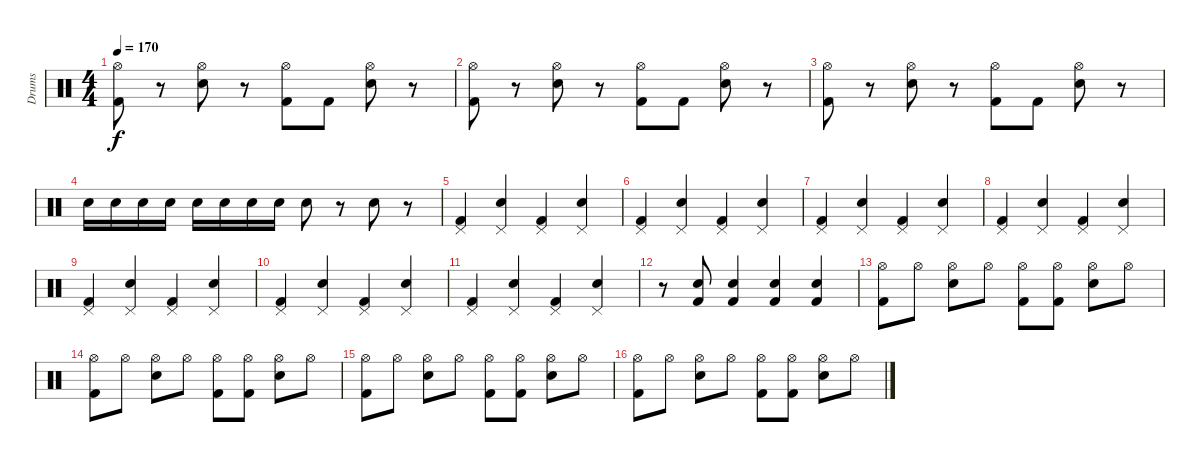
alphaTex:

\track ("Drums" "Drums") {instrument percussion}
\staff {score}
\articulation defaults
\ts (4 4)
\tempo 170
\clef neutral
\ks c
("Hi-Hat (open)" "Kick (hit) 2").8{dy f} r.8 ("Hi-Hat (open)" "Snare (hit) 2").8 r.8 ("Hi-Hat (open)" "Kick (hit) 2").8 "Kick (hit) 2".8 ("Hi-Hat (open)" "Snare (hit) 2").8 r.8 |
("Hi-Hat (open)" "Kick (hit) 2").8 r.8 ("Hi-Hat (open)" "Snare (hit) 2").8 r.8 ("Hi-Hat (open)" "Kick (hit) 2").8 "Kick (hit) 2".8 ("Hi-Hat (open)" "Snare (hit) 2").8 r.8 |
("Hi-Hat (open)" "Kick (hit) 2").8 r.8 ("Hi-Hat (open)" "Snare (hit) 2").8 r.8 ("Hi-Hat (open)" "Kick (hit) 2").8 "Kick (hit) 2".8 ("Hi-Hat (open)" "Snare (hit) 2").8 r.8 |
"Snare (hit) 2".16 "Snare (hit) 2".16 "Snare (hit) 2".16 "Snare (hit) 2".16 "Snare (hit) 2".16 "Snare (hit) 2".16 "Snare (hit) 2".16 "Snare (hit) 2".16 "Snare (hit) 2".8 r.8 "Snare (hit) 2".8 r.8 |
("Pedal Hi-Hat (hit)" "Kick (hit) 2").4 ("Pedal Hi-Hat (hit)" "Snare (hit) 2").4 ("Pedal Hi-Hat (hit)" "Kick (hit) 2").4 ("Pedal Hi-Hat (hit)" "Snare (hit) 2").4 |
("Pedal Hi-Hat (hit)" "Kick (hit) 2").4 ("Pedal Hi-Hat (hit)" "Snare (hit) 2").4 ("Pedal Hi-Hat (hit)" "Kick (hit) 2").4 ("Pedal Hi-Hat (hit)" "Snare (hit) 2").4 |
("Pedal Hi-Hat (hit)" "Kick (hit) 2").4 ("Pedal Hi-Hat (hit)" "Snare (hit) 2").4 ("Pedal Hi-Hat (hit)" "Kick (hit) 2").4 ("Pedal Hi-Hat (hit)" "Snare (hit) 2").4 |
("Pedal Hi-Hat (hit)" "Kick (hit) 2").4 ("Pedal Hi-Hat (hit)" "Snare (hit) 2").4 ("Pedal Hi-Hat (hit)" "Kick (hit) 2").4 ("Pedal Hi-Hat (hit)" "Snare (hit) 2").4 |
("Pedal Hi-Hat (hit)" "Kick (hit) 2").4 ("Pedal Hi-Hat (hit)" "Snare (hit) 2").4 ("Pedal Hi-Hat (hit)" "Kick (hit) 2").4 ("Pedal Hi-Hat (hit)" "Snare (hit) 2").4 |
("Pedal Hi-Hat (hit)" "Kick (hit) 2").4 ("Pedal Hi-Hat (hit)" "Snare (hit) 2").4 ("Pedal Hi-Hat (hit)" "Kick (hit) 2").4 ("Pedal Hi-Hat (hit)" "Snare (hit) 2").4 |
("Pedal Hi-Hat (hit)" "Kick (hit) 2").4 ("Pedal Hi-Hat (hit)" "Snare (hit) 2").4 ("Pedal Hi-Hat (hit)" "Kick (hit) 2").4 ("Pedal Hi-Hat (hit)" "Snare (hit) 2").4 |
r.8 ("Snare (hit) 2" "Kick (hit) 2").8 ("Snare (hit) 2" "Kick (hit) 2").4 ("Snare (hit) 2" "Kick (hit) 2").4 ("Snare (hit) 2" "Kick (hit) 2").4 |
("Hi-Hat (open)" "Kick (hit) 2").8 "Hi-Hat (open)".8 ("Hi-Hat (open)" "Snare (hit) 2").8 "Hi-Hat (open)".8 ("Hi-Hat (open)" "Kick (hit) 2").8 ("Hi-Hat (open)" "Kick (hit) 2").8 ("Hi-Hat (open)" "Snare (hit) 2").8 "Hi-Hat (open)".8 |
("Hi-Hat (open)" "Kick (hit) 2").8 "Hi-Hat (open)".8 ("Hi-Hat (open)" "Snare (hit) 2").8 "Hi-Hat (open)".8 ("Hi-Hat (open)" "Kick (hit) 2").8 ("Hi-Hat (open)" "Kick (hit) 2").8 ("Hi-Hat (open)" "Snare (hit) 2").8 "Hi-Hat (open)".8 |
("Hi-Hat (open)" "Kick (hit) 2").8 "Hi-Hat (open)".8 ("Hi-Hat (open)" "Snare (hit) 2").8 "Hi-Hat (open)".8 ("Hi-Hat (open)" "Kick (hit) 2").8 ("Hi-Hat (open)" "Kick (hit) 2").8 ("Hi-Hat (open)" "Snare (hit) 2").8 "Hi-Hat (open)".8 |
("Hi-Hat (open)" "Kick (hit) 2").8 "Hi-Hat (open)".8 ("Hi-Hat (open)" "Snare (hit) 2").8 "Hi-Hat (open)".8 ("Hi-Hat (open)" "Kick (hit) 2").8 ("Hi-Hat (open)" "Kick (hit) 2").8 ("Hi-Hat (open)" "Snare (hit) 2").8 "Hi-Hat (open)".8
